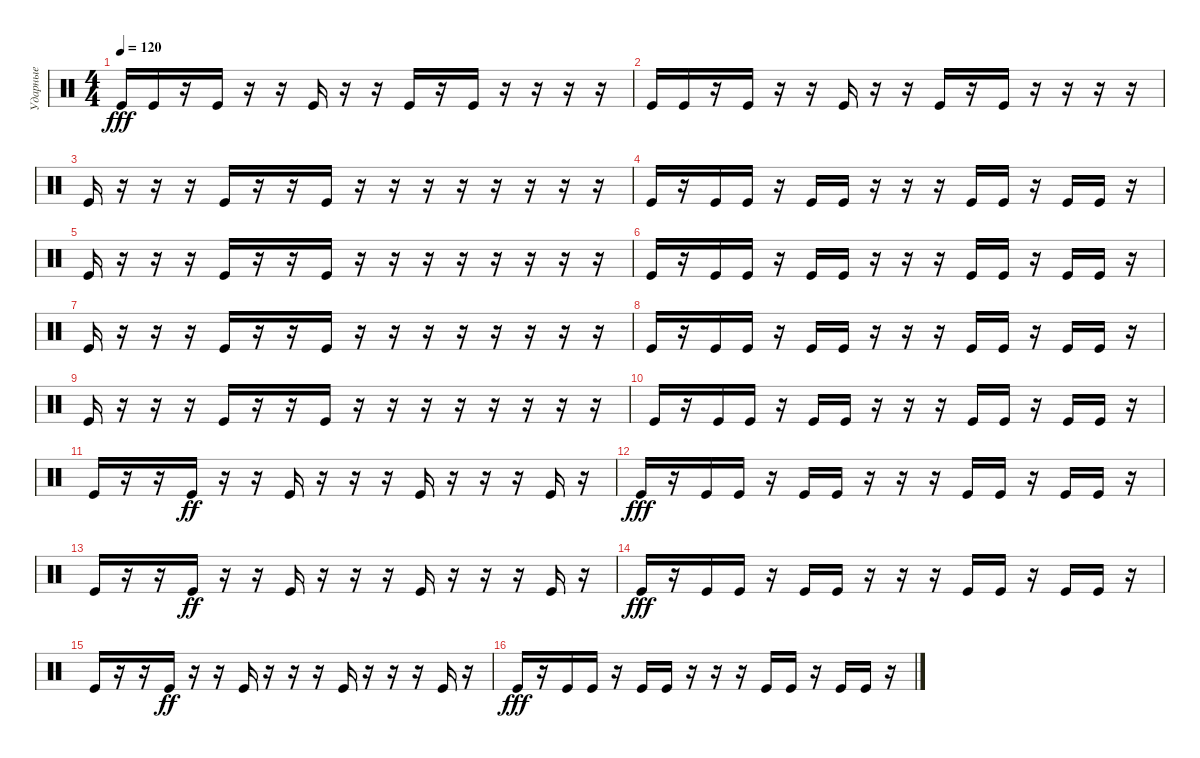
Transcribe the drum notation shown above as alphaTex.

\track ("Ударные" "Ударные") {instrument percussion}
\staff {score}
\articulation defaults
\ts (4 4)
\tempo 120
\clef neutral
\ks c "Kick (hit)".16{dy fff} "Kick (hit)".16
r.16 "Kick (hit)".16 r.16 r.16 "Kick (hit)".16 r.16 r.16 "Kick (hit)".16 r.16 "Kick (hit)".16 r.16 r.16 r.16 r.16 |
"Kick (hit)".16 "Kick (hit)".16 r.16 "Kick (hit)".16 r.16 r.16 "Kick (hit)".16 r.16 r.16 "Kick (hit)".16 r.16 "Kick (hit)".16 r.16 r.16 r.16 r.16 |
"Kick (hit)".16 r.16 r.16 r.16 "Kick (hit)".16 r.16 r.16 "Kick (hit)".16 r.16 r.16 r.16 r.16 r.16 r.16 r.16 r.16 |
"Kick (hit)".16 r.16 "Kick (hit)".16 "Kick (hit)".16 r.16 "Kick (hit)".16 "Kick (hit)".16 r.16 r.16 r.16 "Kick (hit)".16 "Kick (hit)".16 r.16 "Kick (hit)".16 "Kick (hit)".16 r.16 |
"Kick (hit)".16 r.16 r.16 r.16 "Kick (hit)".16 r.16 r.16 "Kick (hit)".16 r.16 r.16 r.16 r.16 r.16 r.16 r.16 r.16 |
"Kick (hit)".16 r.16 "Kick (hit)".16 "Kick (hit)".16 r.16 "Kick (hit)".16 "Kick (hit)".16 r.16 r.16 r.16 "Kick (hit)".16 "Kick (hit)".16 r.16 "Kick (hit)".16 "Kick (hit)".16 r.16 |
"Kick (hit)".16 r.16 r.16 r.16 "Kick (hit)".16 r.16 r.16 "Kick (hit)".16 r.16 r.16 r.16 r.16 r.16 r.16 r.16 r.16 |
"Kick (hit)".16 r.16 "Kick (hit)".16 "Kick (hit)".16 r.16 "Kick (hit)".16 "Kick (hit)".16 r.16 r.16 r.16 "Kick (hit)".16 "Kick (hit)".16 r.16 "Kick (hit)".16 "Kick (hit)".16 r.16 |
"Kick (hit)".16 r.16 r.16 r.16 "Kick (hit)".16 r.16 r.16 "Kick (hit)".16 r.16 r.16 r.16 r.16 r.16 r.16 r.16 r.16 |
"Kick (hit)".16 r.16 "Kick (hit)".16 "Kick (hit)".16 r.16 "Kick (hit)".16 "Kick (hit)".16 r.16 r.16 r.16 "Kick (hit)".16 "Kick (hit)".16 r.16 "Kick (hit)".16 "Kick (hit)".16 r.16 |
"Kick (hit)".16 r.16 r.16 "Kick (hit)".16{dy ff} r.16 r.16 "Kick (hit)".16 r.16 r.16 r.16 "Kick (hit)".16 r.16 r.16 r.16 "Kick (hit)".16 r.16 |
"Kick (hit)".16{dy fff} r.16 "Kick (hit)".16 "Kick (hit)".16 r.16 "Kick (hit)".16 "Kick (hit)".16 r.16 r.16 r.16 "Kick (hit)".16 "Kick (hit)".16 r.16 "Kick (hit)".16 "Kick (hit)".16 r.16 |
"Kick (hit)".16 r.16 r.16 "Kick (hit)".16{dy ff} r.16 r.16 "Kick (hit)".16 r.16 r.16 r.16 "Kick (hit)".16 r.16 r.16 r.16 "Kick (hit)".16 r.16 |
"Kick (hit)".16{dy fff} r.16 "Kick (hit)".16 "Kick (hit)".16 r.16 "Kick (hit)".16 "Kick (hit)".16 r.16 r.16 r.16 "Kick (hit)".16 "Kick (hit)".16 r.16 "Kick (hit)".16 "Kick (hit)".16 r.16 |
"Kick (hit)".16 r.16 r.16 "Kick (hit)".16{dy ff} r.16 r.16 "Kick (hit)".16 r.16 r.16 r.16 "Kick (hit)".16 r.16 r.16 r.16 "Kick (hit)".16 r.16 |
"Kick (hit)".16{dy fff} r.16 "Kick (hit)".16 "Kick (hit)".16 r.16 "Kick (hit)".16 "Kick (hit)".16 r.16 r.16 r.16 "Kick (hit)".16 "Kick (hit)".16 r.16 "Kick (hit)".16 "Kick (hit)".16 r.16
